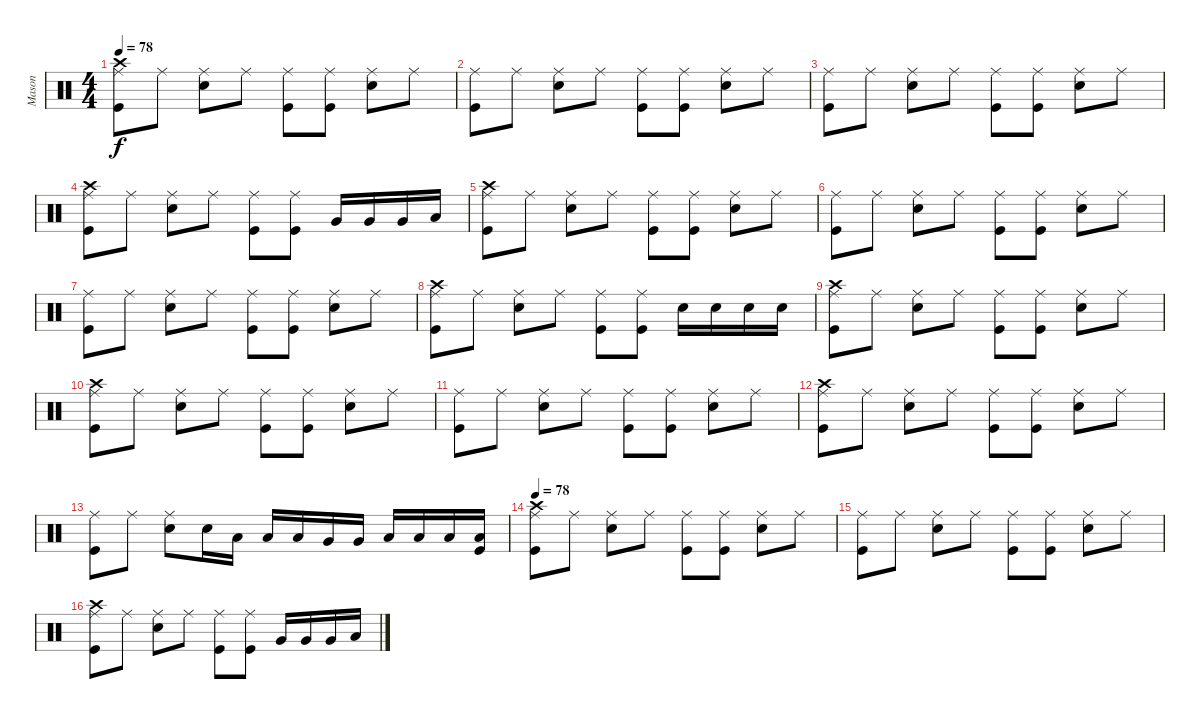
\track ("Mason" "Mason") {instrument percussion}
\staff {score}
\articulation defaults
\ts (4 4)
\tempo 78
\clef neutral
\ks c
("Crash high (hit)" "Ride (middle)" "Kick (hit)").8{dy f} "Ride (middle)".8 ("Ride (middle)" "Electric Snare (hit)").8 "Ride (middle)".8 ("Ride (middle)" "Kick (hit)").8 ("Ride (middle)" "Kick (hit)").8 ("Ride (middle)" "Electric Snare (hit)").8 "Ride (middle)".8 |
("Ride (middle)" "Kick (hit)").8 "Ride (middle)".8 ("Ride (middle)" "Electric Snare (hit)").8 "Ride (middle)".8 ("Ride (middle)" "Kick (hit)").8 ("Ride (middle)" "Kick (hit)").8 ("Ride (middle)" "Electric Snare (hit)").8 "Ride (middle)".8 |
("Ride (middle)" "Kick (hit)").8 "Ride (middle)".8 ("Ride (middle)" "Electric Snare (hit)").8 "Ride (middle)".8 ("Ride (middle)" "Kick (hit)").8 ("Ride (middle)" "Kick (hit)").8 ("Ride (middle)" "Electric Snare (hit)").8 "Ride (middle)".8 |
("Crash high (hit)" "Ride (middle)" "Kick (hit)").8 "Ride (middle)".8 ("Ride (middle)" "Electric Snare (hit)").8 "Ride (middle)".8 ("Ride (middle)" "Kick (hit)").8 ("Ride (middle)" "Kick (hit)").8 "Very Low Tom (hit)".16 "Very Low Tom (hit)".16 "Very Low Tom (hit)".16 "Low Floor Tom (hit)".16 |
("Crash high (hit)" "Ride (middle)" "Kick (hit)").8 "Ride (middle)".8 ("Ride (middle)" "Electric Snare (hit)").8 "Ride (middle)".8 ("Ride (middle)" "Kick (hit)").8 ("Ride (middle)" "Kick (hit)").8 ("Ride (middle)" "Electric Snare (hit)").8 "Ride (middle)".8 |
("Ride (middle)" "Kick (hit)").8 "Ride (middle)".8 ("Ride (middle)" "Electric Snare (hit)").8 "Ride (middle)".8 ("Ride (middle)" "Kick (hit)").8 ("Ride (middle)" "Kick (hit)").8 ("Ride (middle)" "Electric Snare (hit)").8 "Ride (middle)".8 |
("Ride (middle)" "Kick (hit)").8 "Ride (middle)".8 ("Ride (middle)" "Electric Snare (hit)").8 "Ride (middle)".8 ("Ride (middle)" "Kick (hit)").8 ("Ride (middle)" "Kick (hit)").8 ("Ride (middle)" "Electric Snare (hit)").8 "Ride (middle)".8 |
("Crash high (hit)" "Ride (middle)" "Kick (hit)").8 "Ride (middle)".8 ("Ride (middle)" "Electric Snare (hit)").8 "Ride (middle)".8 ("Ride (middle)" "Kick (hit)").8 ("Ride (middle)" "Kick (hit)").8 "Electric Snare (hit)".16 "Electric Snare (hit)".16 "Electric Snare (hit)".16 "Electric Snare (hit)".16 |
("Crash high (hit)" "Ride (middle)" "Kick (hit)").8 "Ride (middle)".8 ("Ride (middle)" "Electric Snare (hit)").8 "Ride (middle)".8 ("Ride (middle)" "Kick (hit)").8 ("Ride (middle)" "Kick (hit)").8 ("Ride (middle)" "Electric Snare (hit)").8 "Ride (middle)".8 |
("Crash high (hit)" "Ride (middle)" "Kick (hit)").8 "Ride (middle)".8 ("Ride (middle)" "Electric Snare (hit)").8 "Ride (middle)".8 ("Ride (middle)" "Kick (hit)").8 ("Ride (middle)" "Kick (hit)").8 ("Ride (middle)" "Electric Snare (hit)").8 "Ride (middle)".8 |
("Ride (middle)" "Kick (hit)").8 "Ride (middle)".8 ("Ride (middle)" "Electric Snare (hit)").8 "Ride (middle)".8 ("Ride (middle)" "Kick (hit)").8 ("Ride (middle)" "Kick (hit)").8 ("Ride (middle)" "Electric Snare (hit)").8 "Ride (middle)".8 |
("Crash high (hit)" "Ride (middle)" "Kick (hit)").8 "Ride (middle)".8 ("Ride (middle)" "Electric Snare (hit)").8 "Ride (middle)".8 ("Ride (middle)" "Kick (hit)").8 ("Ride (middle)" "Kick (hit)").8 ("Ride (middle)" "Electric Snare (hit)").8 "Ride (middle)".8 |
("Ride (middle)" "Kick (hit)").8 "Ride (middle)".8 ("Ride (middle)" "Electric Snare (hit)").8 "Electric Snare (hit)".16 "Low Tom (hit)".16 "Low Tom (hit)".16 "Low Tom (hit)".16 "Very Low Tom (hit)".16 "Very Low Tom (hit)".16 "Low Floor Tom (hit)".16 "Low Floor Tom (hit)".16 "Low Floor Tom (hit)".16 ("Low Floor Tom (hit)" "Kick (hit)").16 |
\tempo 78
("Crash high (hit)" "Ride (middle)" "Kick (hit)").8 "Ride (middle)".8 ("Ride (middle)" "Electric Snare (hit)").8 "Ride (middle)".8 ("Ride (middle)" "Kick (hit)").8 ("Ride (middle)" "Kick (hit)").8 ("Ride (middle)" "Electric Snare (hit)").8 "Ride (middle)".8 |
("Ride (middle)" "Kick (hit)").8 "Ride (middle)".8 ("Ride (middle)" "Electric Snare (hit)").8 "Ride (middle)".8 ("Ride (middle)" "Kick (hit)").8 ("Ride (middle)" "Kick (hit)").8 ("Ride (middle)" "Electric Snare (hit)").8 "Ride (middle)".8 |
("Crash high (hit)" "Ride (middle)" "Kick (hit)").8 "Ride (middle)".8 ("Ride (middle)" "Electric Snare (hit)").8 "Ride (middle)".8 ("Ride (middle)" "Kick (hit)").8 ("Ride (middle)" "Kick (hit)").8 "Very Low Tom (hit)".16 "Very Low Tom (hit)".16 "Very Low Tom (hit)".16 "Low Floor Tom (hit)".16
